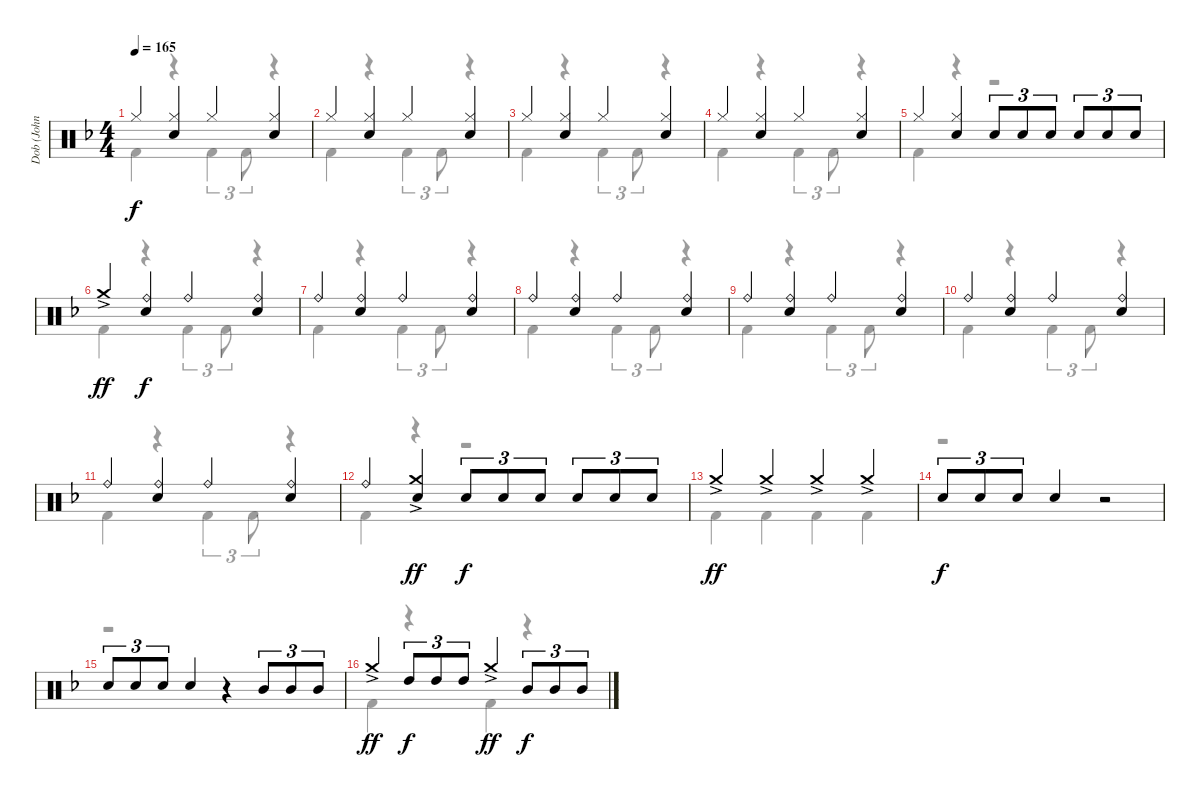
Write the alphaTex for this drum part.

\track ("Dob (John O’Reilly)" "Dob (John ") {instrument percussion}
\staff {score}
\articulation defaults
\voice
\ts (4 4)
\tempo 165
\clef neutral
\ks f "Hi-Hat (closed)".4{dy f}
("Hi-Hat (closed)" "Electric Snare (hit)").4 "Hi-Hat (closed)".4 ("Hi-Hat (closed)" "Electric Snare (hit)").4 |
"Hi-Hat (closed)".4 ("Hi-Hat (closed)" "Electric Snare (hit)").4 "Hi-Hat (closed)".4 ("Hi-Hat (closed)" "Electric Snare (hit)").4 |
"Hi-Hat (closed)".4 ("Hi-Hat (closed)" "Electric Snare (hit)").4 "Hi-Hat (closed)".4 ("Hi-Hat (closed)" "Electric Snare (hit)").4 |
"Hi-Hat (closed)".4 ("Hi-Hat (closed)" "Electric Snare (hit)").4 "Hi-Hat (closed)".4 ("Hi-Hat (closed)" "Electric Snare (hit)").4 |
"Hi-Hat (closed)".4 ("Hi-Hat (closed)" "Electric Snare (hit)").4 "Electric Snare (hit)".8{tu (3 2)} "Electric Snare (hit)".8{tu (3 2)} "Electric Snare (hit)".8{tu (3 2)} "Electric Snare (hit)".8{tu (3 2)} "Electric Snare (hit)".8{tu (3 2)} "Electric Snare (hit)".8{tu (3 2)} |
"Crash medium (hit)"{ac}.4{dy ff} ("Ride (bell)" "Electric Snare (hit)").4{dy f} "Ride (bell)".4 ("Ride (bell)" "Electric Snare (hit)").4 |
"Ride (bell)".4 ("Ride (bell)" "Electric Snare (hit)").4 "Ride (bell)".4 ("Ride (bell)" "Electric Snare (hit)").4 |
"Ride (bell)".4 ("Ride (bell)" "Electric Snare (hit)").4 "Ride (bell)".4 ("Ride (bell)" "Electric Snare (hit)").4 |
"Ride (bell)".4 ("Ride (bell)" "Electric Snare (hit)").4 "Ride (bell)".4 ("Ride (bell)" "Electric Snare (hit)").4 |
"Ride (bell)".4 ("Ride (bell)" "Electric Snare (hit)").4 "Ride (bell)".4 ("Ride (bell)" "Electric Snare (hit)").4 |
"Ride (bell)".4 ("Ride (bell)" "Electric Snare (hit)").4 "Ride (bell)".4 ("Ride (bell)" "Electric Snare (hit)").4 |
"Ride (bell)".4 ("Crash medium (hit)"{ac} "Electric Snare (hit)").4{dy ff} "Electric Snare (hit)".8{tu (3 2) dy f} "Electric Snare (hit)".8{tu (3 2)} "Electric Snare (hit)".8{tu (3 2)} "Electric Snare (hit)".8{tu (3 2)} "Electric Snare (hit)".8{tu (3 2)} "Electric Snare (hit)".8{tu (3 2)} |
"Crash medium (hit)"{ac}.4{dy ff} "Crash medium (hit)"{ac}.4 "Crash medium (hit)"{ac}.4 "Crash medium (hit)"{ac}.4 |
"Electric Snare (hit)".8{tu (3 2) dy f} "Electric Snare (hit)".8{tu (3 2)} "Electric Snare (hit)".8{tu (3 2)} "Electric Snare (hit)".4 r.2 |
"Electric Snare (hit)".8{tu (3 2)} "Electric Snare (hit)".8{tu (3 2)} "Electric Snare (hit)".8{tu (3 2)} "Electric Snare (hit)".4 r.4 "Mid Tom (hit)".8{tu (3 2)} "Mid Tom (hit)".8{tu (3 2)} "Mid Tom (hit)".8{tu (3 2)} |
"Crash medium (hit)"{ac}.4{dy ff} "High Tom (hit)".8{tu (3 2) dy f} "High Tom (hit)".8{tu (3 2)} "High Tom (hit)".8{tu (3 2)} "Crash medium (hit)"{ac}.4{dy ff} "Mid Tom (hit)".8{tu (3 2) dy f} "Mid Tom (hit)".8{tu (3 2)} "Mid Tom (hit)".8{tu (3 2)}
\voice
\clef neutral
\ottava regular
\simile none
\ks f "Kick (hit) 2".4{dy f}
r.4 "Kick (hit) 2".4{tu (3 2)} "Kick (hit) 2".8{tu (3 2)} r.4 |
"Kick (hit) 2".4 r.4 "Kick (hit) 2".4{tu (3 2)} "Kick (hit) 2".8{tu (3 2)} r.4 |
"Kick (hit) 2".4 r.4 "Kick (hit) 2".4{tu (3 2)} "Kick (hit) 2".8{tu (3 2)} r.4 |
"Kick (hit) 2".4 r.4 "Kick (hit) 2".4{tu (3 2)} "Kick (hit) 2".8{tu (3 2)} r.4 |
"Kick (hit) 2".4 r.4 r.2 |
"Kick (hit) 2".4 r.4 "Kick (hit) 2".4{tu (3 2)} "Kick (hit) 2".8{tu (3 2)} r.4 |
"Kick (hit) 2".4 r.4 "Kick (hit) 2".4{tu (3 2)} "Kick (hit) 2".8{tu (3 2)} r.4 |
"Kick (hit) 2".4 r.4 "Kick (hit) 2".4{tu (3 2)} "Kick (hit) 2".8{tu (3 2)} r.4 |
"Kick (hit) 2".4 r.4 "Kick (hit) 2".4{tu (3 2)} "Kick (hit) 2".8{tu (3 2)} r.4 |
"Kick (hit) 2".4 r.4 "Kick (hit) 2".4{tu (3 2)} "Kick (hit) 2".8{tu (3 2)} r.4 |
"Kick (hit) 2".4 r.4 "Kick (hit) 2".4{tu (3 2)} "Kick (hit) 2".8{tu (3 2)} r.4 |
"Kick (hit) 2".4 r.4 r.2 |
"Kick (hit) 2".4 "Kick (hit) 2".4 "Kick (hit) 2".4 "Kick (hit) 2".4 |
r.1 |
r.1 |
"Kick (hit) 2".4 r.4 "Kick (hit) 2".4 r.4
